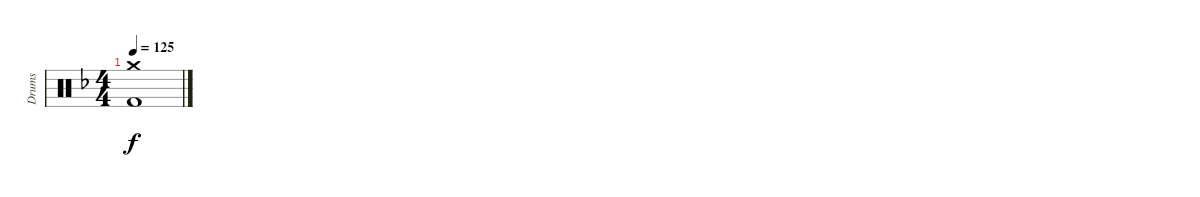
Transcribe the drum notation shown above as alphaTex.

\track ("Drums" "Drums") {instrument percussion}
\staff {score}
\articulation defaults
\ts (4 4)
\tempo 125
\clef neutral
\ks f
("Crash medium (hit)" "Kick (hit) 2").1{dy f}
